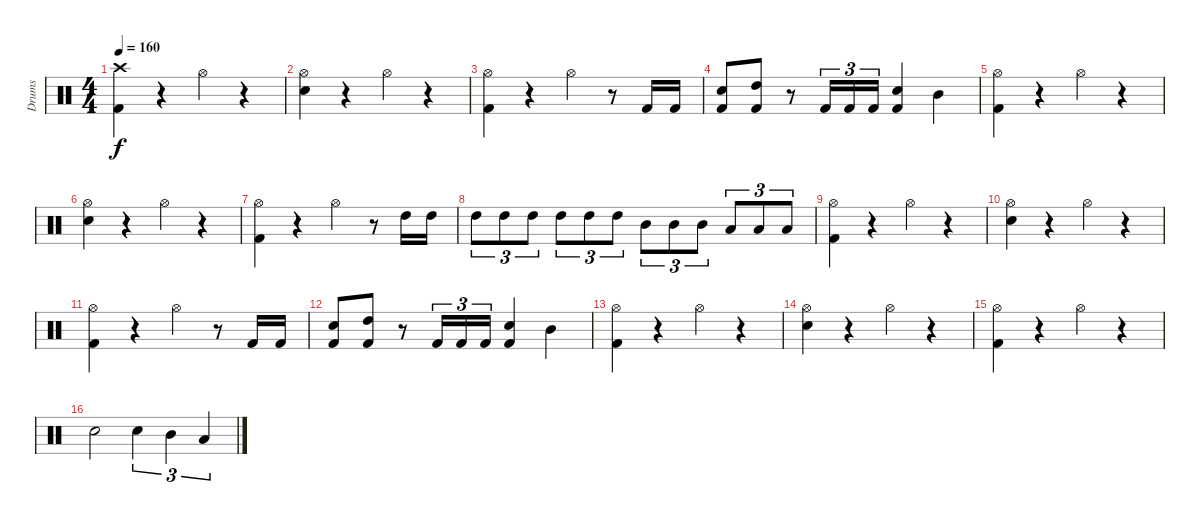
\track ("Drums" "Drums") {instrument percussion}
\staff {score}
\articulation defaults
\ts (4 4)
\tempo 160
\tempo 120
\tempo 160
\clef neutral
\ks c
("Crash high (hit)" "Kick (hit) 2").4{dy f} r.4 "Hi-Hat (open)".4 r.4 |
("Hi-Hat (open)" "Electric Snare (hit)").4 r.4 "Hi-Hat (open)".4 r.4 |
("Hi-Hat (open)" "Kick (hit) 2").4 r.4 "Hi-Hat (open)".4 r.8 "Kick (hit) 2".16 "Kick (hit) 2".16 |
("Electric Snare (hit)" "Kick (hit) 2").8 ("High Tom (hit)" "Kick (hit) 2").8 r.8 "Kick (hit) 2".16{tu (3 2)} "Kick (hit) 2".16{tu (3 2)} "Kick (hit) 2".16{tu (3 2)} ("Electric Snare (hit)" "Kick (hit) 2").4 "Mid Tom (hit)".4 |
("Hi-Hat (open)" "Kick (hit) 2").4 r.4 "Hi-Hat (open)".4 r.4 |
("Hi-Hat (open)" "Electric Snare (hit)").4 r.4 "Hi-Hat (open)".4 r.4 |
("Hi-Hat (open)" "Kick (hit) 2").4 r.4 "Hi-Hat (open)".4 r.8 "High Tom (hit)".16 "High Tom (hit)".16 |
"High Tom (hit)".8{tu (3 2)} "High Tom (hit)".8{tu (3 2)} "High Tom (hit)".8{tu (3 2)} "High Tom (hit)".8{tu (3 2)} "High Tom (hit)".8{tu (3 2)} "High Tom (hit)".8{tu (3 2)} "Mid Tom (hit)".8{tu (3 2)} "Mid Tom (hit)".8{tu (3 2)} "Mid Tom (hit)".8{tu (3 2)} "Low Tom (hit)".8{tu (3 2)} "Low Tom (hit)".8{tu (3 2)} "Low Tom (hit)".8{tu (3 2)} |
("Hi-Hat (open)" "Kick (hit) 2").4 r.4 "Hi-Hat (open)".4 r.4 |
("Hi-Hat (open)" "Electric Snare (hit)").4 r.4 "Hi-Hat (open)".4 r.4 |
("Hi-Hat (open)" "Kick (hit) 2").4 r.4 "Hi-Hat (open)".4 r.8 "Kick (hit) 2".16 "Kick (hit) 2".16 |
("Electric Snare (hit)" "Kick (hit) 2").8 ("High Tom (hit)" "Kick (hit) 2").8 r.8 "Kick (hit) 2".16{tu (3 2)} "Kick (hit) 2".16{tu (3 2)} "Kick (hit) 2".16{tu (3 2)} ("Electric Snare (hit)" "Kick (hit) 2").4 "Mid Tom (hit)".4 |
("Hi-Hat (open)" "Kick (hit) 2").4 r.4 "Hi-Hat (open)".4 r.4 |
("Hi-Hat (open)" "Electric Snare (hit)").4 r.4 "Hi-Hat (open)".4 r.4 |
("Hi-Hat (open)" "Kick (hit) 2").4 r.4 "Hi-Hat (open)".4 r.4 |
"Electric Snare (hit)".2 "Electric Snare (hit)".4{tu (3 2)} "Mid Tom (hit)".4{tu (3 2)} "Low Tom (hit)".4{tu (3 2)}
